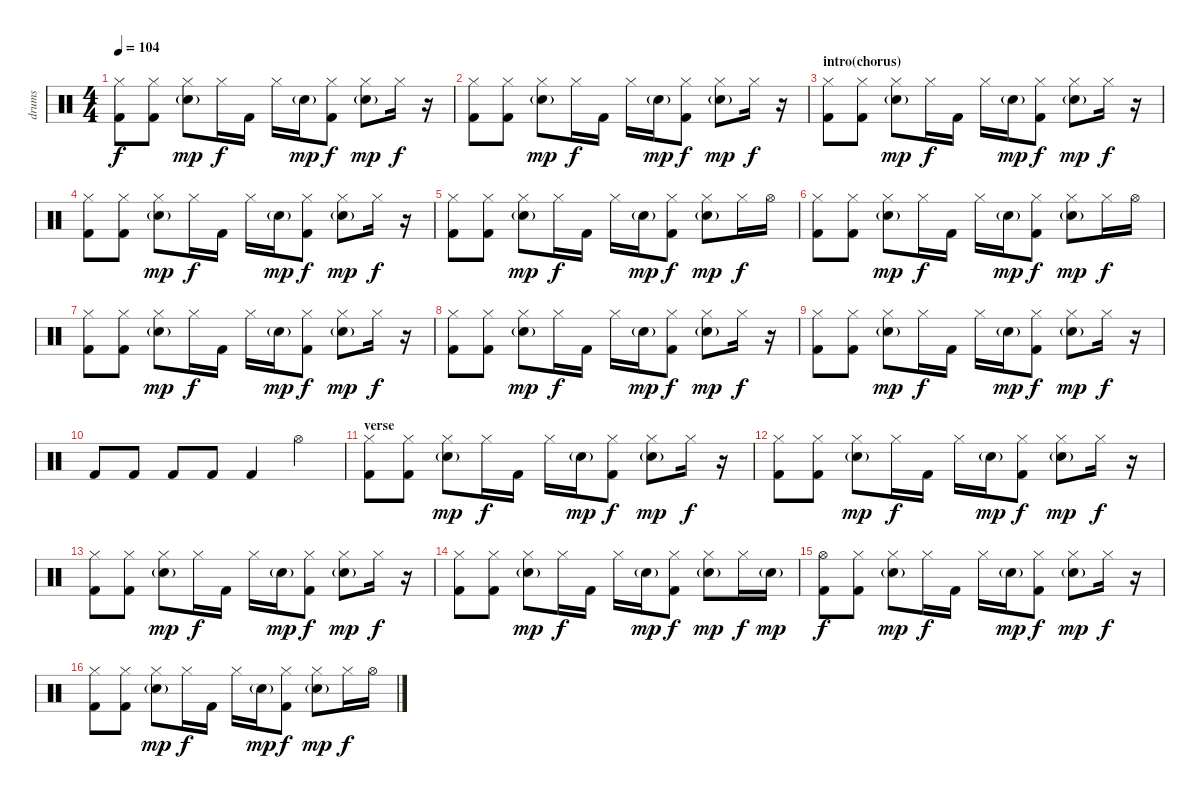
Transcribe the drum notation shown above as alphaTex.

\track ("drums" "drums") {instrument percussion}
\staff {score}
\articulation defaults
\ts (4 4)
\tempo 104
\clef neutral
\ks c
("Hi-Hat (closed)" "Kick (hit) 2").8{dy f} ("Hi-Hat (closed)" "Kick (hit) 2").8 ("Hi-Hat (closed)" "Electric Snare (hit)"{g}).8{dy mp} "Hi-Hat (closed)".16{dy f} "Kick (hit) 2".16 "Hi-Hat (closed)".16 "Electric Snare (hit)"{g}.16{dy mp} ("Hi-Hat (closed)" "Kick (hit) 2").8{dy f} ("Hi-Hat (closed)" "Electric Snare (hit)"{g}).8{dy mp} "Hi-Hat (closed)".16{dy f} r.16 |
("Hi-Hat (closed)" "Kick (hit) 2").8 ("Hi-Hat (closed)" "Kick (hit) 2").8 ("Hi-Hat (closed)" "Electric Snare (hit)"{g}).8{dy mp} "Hi-Hat (closed)".16{dy f} "Kick (hit) 2".16 "Hi-Hat (closed)".16 "Electric Snare (hit)"{g}.16{dy mp} ("Hi-Hat (closed)" "Kick (hit) 2").8{dy f} ("Hi-Hat (closed)" "Electric Snare (hit)"{g}).8{dy mp} "Hi-Hat (closed)".16{dy f} r.16 |
\section ("" "intro(chorus)")
("Hi-Hat (closed)" "Kick (hit) 2").8 ("Hi-Hat (closed)" "Kick (hit) 2").8 ("Hi-Hat (closed)" "Electric Snare (hit)"{g}).8{dy mp} "Hi-Hat (closed)".16{dy f} "Kick (hit) 2".16 "Hi-Hat (closed)".16 "Electric Snare (hit)"{g}.16{dy mp} ("Hi-Hat (closed)" "Kick (hit) 2").8{dy f} ("Hi-Hat (closed)" "Electric Snare (hit)"{g}).8{dy mp} "Hi-Hat (closed)".16{dy f} r.16 |
("Hi-Hat (closed)" "Kick (hit) 2").8 ("Hi-Hat (closed)" "Kick (hit) 2").8 ("Hi-Hat (closed)" "Electric Snare (hit)"{g}).8{dy mp} "Hi-Hat (closed)".16{dy f} "Kick (hit) 2".16 "Hi-Hat (closed)".16 "Electric Snare (hit)"{g}.16{dy mp} ("Hi-Hat (closed)" "Kick (hit) 2").8{dy f} ("Hi-Hat (closed)" "Electric Snare (hit)"{g}).8{dy mp} "Hi-Hat (closed)".16{dy f} r.16 |
("Hi-Hat (closed)" "Kick (hit) 2").8 ("Hi-Hat (closed)" "Kick (hit) 2").8 ("Hi-Hat (closed)" "Electric Snare (hit)"{g}).8{dy mp} "Hi-Hat (closed)".16{dy f} "Kick (hit) 2".16 "Hi-Hat (closed)".16 "Electric Snare (hit)"{g}.16{dy mp} ("Hi-Hat (closed)" "Kick (hit) 2").8{dy f} ("Hi-Hat (closed)" "Electric Snare (hit)"{g}).8{dy mp} "Hi-Hat (closed)".16{dy f} "Hi-Hat (open)".16 |
("Hi-Hat (closed)" "Kick (hit) 2").8 ("Hi-Hat (closed)" "Kick (hit) 2").8 ("Hi-Hat (closed)" "Electric Snare (hit)"{g}).8{dy mp} "Hi-Hat (closed)".16{dy f} "Kick (hit) 2".16 "Hi-Hat (closed)".16 "Electric Snare (hit)"{g}.16{dy mp} ("Hi-Hat (closed)" "Kick (hit) 2").8{dy f} ("Hi-Hat (closed)" "Electric Snare (hit)"{g}).8{dy mp} "Hi-Hat (closed)".16{dy f} "Hi-Hat (open)".16 |
("Hi-Hat (closed)" "Kick (hit) 2").8 ("Hi-Hat (closed)" "Kick (hit) 2").8 ("Hi-Hat (closed)" "Electric Snare (hit)"{g}).8{dy mp} "Hi-Hat (closed)".16{dy f} "Kick (hit) 2".16 "Hi-Hat (closed)".16 "Electric Snare (hit)"{g}.16{dy mp} ("Hi-Hat (closed)" "Kick (hit) 2").8{dy f} ("Hi-Hat (closed)" "Electric Snare (hit)"{g}).8{dy mp} "Hi-Hat (closed)".16{dy f} r.16 |
("Hi-Hat (closed)" "Kick (hit) 2").8 ("Hi-Hat (closed)" "Kick (hit) 2").8 ("Hi-Hat (closed)" "Electric Snare (hit)"{g}).8{dy mp} "Hi-Hat (closed)".16{dy f} "Kick (hit) 2".16 "Hi-Hat (closed)".16 "Electric Snare (hit)"{g}.16{dy mp} ("Hi-Hat (closed)" "Kick (hit) 2").8{dy f} ("Hi-Hat (closed)" "Electric Snare (hit)"{g}).8{dy mp} "Hi-Hat (closed)".16{dy f} r.16 |
("Hi-Hat (closed)" "Kick (hit) 2").8 ("Hi-Hat (closed)" "Kick (hit) 2").8 ("Hi-Hat (closed)" "Electric Snare (hit)"{g}).8{dy mp} "Hi-Hat (closed)".16{dy f} "Kick (hit) 2".16 "Hi-Hat (closed)".16 "Electric Snare (hit)"{g}.16{dy mp} ("Hi-Hat (closed)" "Kick (hit) 2").8{dy f} ("Hi-Hat (closed)" "Electric Snare (hit)"{g}).8{dy mp} "Hi-Hat (closed)".16{dy f} r.16 |
"Kick (hit) 2".8 "Kick (hit) 2".8 "Kick (hit) 2".8 "Kick (hit) 2".8 "Kick (hit) 2".4 "Hi-Hat (open)".4 |
\section ("" "verse")
("Hi-Hat (closed)" "Kick (hit) 2").8 ("Hi-Hat (closed)" "Kick (hit) 2").8 ("Hi-Hat (closed)" "Electric Snare (hit)"{g}).8{dy mp} "Hi-Hat (closed)".16{dy f} "Kick (hit) 2".16 "Hi-Hat (closed)".16 "Electric Snare (hit)"{g}.16{dy mp} ("Hi-Hat (closed)" "Kick (hit) 2").8{dy f} ("Hi-Hat (closed)" "Electric Snare (hit)"{g}).8{dy mp} "Hi-Hat (closed)".16{dy f} r.16 |
("Hi-Hat (closed)" "Kick (hit) 2").8 ("Hi-Hat (closed)" "Kick (hit) 2").8 ("Hi-Hat (closed)" "Electric Snare (hit)"{g}).8{dy mp} "Hi-Hat (closed)".16{dy f} "Kick (hit) 2".16 "Hi-Hat (closed)".16 "Electric Snare (hit)"{g}.16{dy mp} ("Hi-Hat (closed)" "Kick (hit) 2").8{dy f} ("Hi-Hat (closed)" "Electric Snare (hit)"{g}).8{dy mp} "Hi-Hat (closed)".16{dy f} r.16 |
("Hi-Hat (closed)" "Kick (hit) 2").8 ("Hi-Hat (closed)" "Kick (hit) 2").8 ("Hi-Hat (closed)" "Electric Snare (hit)"{g}).8{dy mp} "Hi-Hat (closed)".16{dy f} "Kick (hit) 2".16 "Hi-Hat (closed)".16 "Electric Snare (hit)"{g}.16{dy mp} ("Hi-Hat (closed)" "Kick (hit) 2").8{dy f} ("Hi-Hat (closed)" "Electric Snare (hit)"{g}).8{dy mp} "Hi-Hat (closed)".16{dy f} r.16 |
("Hi-Hat (closed)" "Kick (hit) 2").8 ("Hi-Hat (closed)" "Kick (hit) 2").8 ("Hi-Hat (closed)" "Electric Snare (hit)"{g}).8{dy mp} "Hi-Hat (closed)".16{dy f} "Kick (hit) 2".16 "Hi-Hat (closed)".16 "Electric Snare (hit)"{g}.16{dy mp} ("Hi-Hat (closed)" "Kick (hit) 2").8{dy f} ("Hi-Hat (closed)" "Electric Snare (hit)"{g}).8{dy mp} "Hi-Hat (closed)".16{dy f} "Electric Snare (hit)"{g}.16{dy mp} |
("Hi-Hat (open)" "Kick (hit) 2").8{dy f} ("Hi-Hat (closed)" "Kick (hit) 2").8 ("Hi-Hat (closed)" "Electric Snare (hit)"{g}).8{dy mp} "Hi-Hat (closed)".16{dy f} "Kick (hit) 2".16 "Hi-Hat (closed)".16 "Electric Snare (hit)"{g}.16{dy mp} ("Hi-Hat (closed)" "Kick (hit) 2").8{dy f} ("Hi-Hat (closed)" "Electric Snare (hit)"{g}).8{dy mp} "Hi-Hat (closed)".16{dy f} r.16 |
("Hi-Hat (closed)" "Kick (hit) 2").8 ("Hi-Hat (closed)" "Kick (hit) 2").8 ("Hi-Hat (closed)" "Electric Snare (hit)"{g}).8{dy mp} "Hi-Hat (closed)".16{dy f} "Kick (hit) 2".16 "Hi-Hat (closed)".16 "Electric Snare (hit)"{g}.16{dy mp} ("Hi-Hat (closed)" "Kick (hit) 2").8{dy f} ("Hi-Hat (closed)" "Electric Snare (hit)"{g}).8{dy mp} "Hi-Hat (closed)".16{dy f} "Hi-Hat (open)".16
